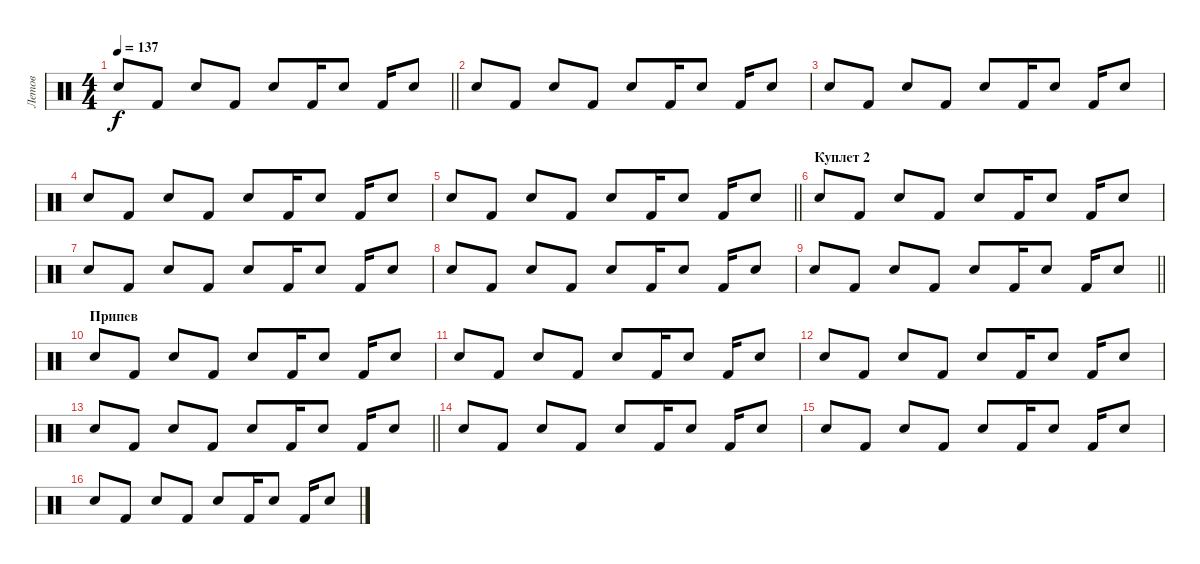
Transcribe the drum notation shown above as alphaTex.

\track ("Летов" "Летов") {instrument percussion}
\staff {score}
\articulation defaults
\ts (4 4)
\tempo 137
\clef neutral
\barLineRight lightlight
\ks c "Electric Snare (hit)".8{dy f} "Kick (hit) 2".8 "Electric Snare (hit)".8 "Kick (hit) 2".8 "Electric Snare (hit)".8 "Kick (hit) 2".16 "Electric Snare (hit)".8 "Kick (hit) 2".16 "Electric Snare (hit)".8
|
"Electric Snare (hit)".8 "Kick (hit) 2".8 "Electric Snare (hit)".8 "Kick (hit) 2".8 "Electric Snare (hit)".8 "Kick (hit) 2".16 "Electric Snare (hit)".8 "Kick (hit) 2".16 "Electric Snare (hit)".8 |
"Electric Snare (hit)".8 "Kick (hit) 2".8 "Electric Snare (hit)".8 "Kick (hit) 2".8 "Electric Snare (hit)".8 "Kick (hit) 2".16 "Electric Snare (hit)".8 "Kick (hit) 2".16 "Electric Snare (hit)".8 |
"Electric Snare (hit)".8 "Kick (hit) 2".8 "Electric Snare (hit)".8 "Kick (hit) 2".8 "Electric Snare (hit)".8 "Kick (hit) 2".16 "Electric Snare (hit)".8 "Kick (hit) 2".16 "Electric Snare (hit)".8 |
\barLineRight lightlight "Electric Snare (hit)".8 "Kick (hit) 2".8 "Electric Snare (hit)".8 "Kick (hit) 2".8 "Electric Snare (hit)".8 "Kick (hit) 2".16 "Electric Snare (hit)".8 "Kick (hit) 2".16 "Electric Snare (hit)".8
|
\section ("" "Куплет 2")
"Electric Snare (hit)".8 "Kick (hit) 2".8 "Electric Snare (hit)".8 "Kick (hit) 2".8 "Electric Snare (hit)".8 "Kick (hit) 2".16 "Electric Snare (hit)".8 "Kick (hit) 2".16 "Electric Snare (hit)".8 |
"Electric Snare (hit)".8 "Kick (hit) 2".8 "Electric Snare (hit)".8 "Kick (hit) 2".8 "Electric Snare (hit)".8 "Kick (hit) 2".16 "Electric Snare (hit)".8 "Kick (hit) 2".16 "Electric Snare (hit)".8 |
"Electric Snare (hit)".8 "Kick (hit) 2".8 "Electric Snare (hit)".8 "Kick (hit) 2".8 "Electric Snare (hit)".8 "Kick (hit) 2".16 "Electric Snare (hit)".8 "Kick (hit) 2".16 "Electric Snare (hit)".8 |
\barLineRight lightlight "Electric Snare (hit)".8 "Kick (hit) 2".8 "Electric Snare (hit)".8 "Kick (hit) 2".8 "Electric Snare (hit)".8 "Kick (hit) 2".16 "Electric Snare (hit)".8 "Kick (hit) 2".16 "Electric Snare (hit)".8
|
\section ("" "Припев")
"Electric Snare (hit)".8 "Kick (hit) 2".8 "Electric Snare (hit)".8 "Kick (hit) 2".8 "Electric Snare (hit)".8 "Kick (hit) 2".16 "Electric Snare (hit)".8 "Kick (hit) 2".16 "Electric Snare (hit)".8 |
"Electric Snare (hit)".8 "Kick (hit) 2".8 "Electric Snare (hit)".8 "Kick (hit) 2".8 "Electric Snare (hit)".8 "Kick (hit) 2".16 "Electric Snare (hit)".8 "Kick (hit) 2".16 "Electric Snare (hit)".8 |
"Electric Snare (hit)".8 "Kick (hit) 2".8 "Electric Snare (hit)".8 "Kick (hit) 2".8 "Electric Snare (hit)".8 "Kick (hit) 2".16 "Electric Snare (hit)".8 "Kick (hit) 2".16 "Electric Snare (hit)".8 |
\barLineRight lightlight "Electric Snare (hit)".8 "Kick (hit) 2".8 "Electric Snare (hit)".8 "Kick (hit) 2".8 "Electric Snare (hit)".8 "Kick (hit) 2".16 "Electric Snare (hit)".8 "Kick (hit) 2".16 "Electric Snare (hit)".8
|
"Electric Snare (hit)".8 "Kick (hit) 2".8 "Electric Snare (hit)".8 "Kick (hit) 2".8 "Electric Snare (hit)".8 "Kick (hit) 2".16 "Electric Snare (hit)".8 "Kick (hit) 2".16 "Electric Snare (hit)".8 |
"Electric Snare (hit)".8 "Kick (hit) 2".8 "Electric Snare (hit)".8 "Kick (hit) 2".8 "Electric Snare (hit)".8 "Kick (hit) 2".16 "Electric Snare (hit)".8 "Kick (hit) 2".16 "Electric Snare (hit)".8 |
"Electric Snare (hit)".8 "Kick (hit) 2".8 "Electric Snare (hit)".8 "Kick (hit) 2".8 "Electric Snare (hit)".8 "Kick (hit) 2".16 "Electric Snare (hit)".8 "Kick (hit) 2".16 "Electric Snare (hit)".8
